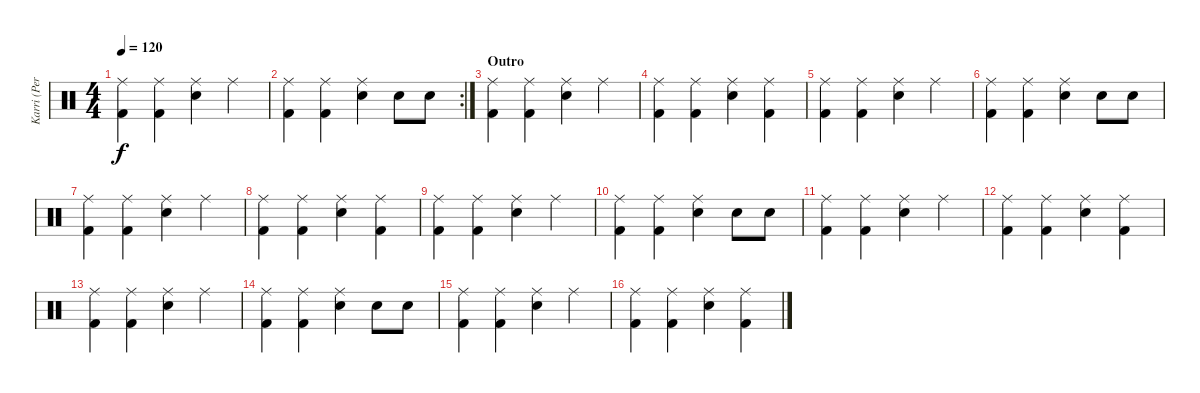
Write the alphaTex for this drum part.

\track ("Karri (Percussion)" "Karri (Per") {instrument percussion}
\staff {score}
\articulation defaults
\ts (4 4)
\tempo 120
\clef neutral
\ks c
("Ride (middle)" "Kick (hit) 2").4{dy f} ("Ride (middle)" "Kick (hit) 2").4 ("Ride (middle)" "Snare (hit) 2").4 "Ride (middle)".4 |
\rc 2
("Ride (middle)" "Kick (hit) 2").4 ("Ride (middle)" "Kick (hit) 2").4 ("Ride (middle)" "Snare (hit) 2").4 "Snare (hit) 2".8 "Snare (hit) 2".8 |
\section ("" "Outro")
("Ride (middle)" "Kick (hit) 2").4 ("Ride (middle)" "Kick (hit) 2").4 ("Ride (middle)" "Snare (hit) 2").4 "Ride (middle)".4 |
("Ride (middle)" "Kick (hit) 2").4 ("Ride (middle)" "Kick (hit) 2").4 ("Ride (middle)" "Snare (hit) 2").4 ("Ride (middle)" "Kick (hit) 2").4 |
("Ride (middle)" "Kick (hit) 2").4 ("Ride (middle)" "Kick (hit) 2").4 ("Ride (middle)" "Snare (hit) 2").4 "Ride (middle)".4 |
("Ride (middle)" "Kick (hit) 2").4 ("Ride (middle)" "Kick (hit) 2").4 ("Ride (middle)" "Snare (hit) 2").4 "Snare (hit) 2".8 "Snare (hit) 2".8 |
("Ride (middle)" "Kick (hit) 2").4 ("Ride (middle)" "Kick (hit) 2").4 ("Ride (middle)" "Snare (hit) 2").4 "Ride (middle)".4 |
("Ride (middle)" "Kick (hit) 2").4 ("Ride (middle)" "Kick (hit) 2").4 ("Ride (middle)" "Snare (hit) 2").4 ("Ride (middle)" "Kick (hit) 2").4 |
("Ride (middle)" "Kick (hit) 2").4 ("Ride (middle)" "Kick (hit) 2").4 ("Ride (middle)" "Snare (hit) 2").4 "Ride (middle)".4 |
("Ride (middle)" "Kick (hit) 2").4 ("Ride (middle)" "Kick (hit) 2").4 ("Ride (middle)" "Snare (hit) 2").4 "Snare (hit) 2".8 "Snare (hit) 2".8 |
("Ride (middle)" "Kick (hit) 2").4{volume 13} ("Ride (middle)" "Kick (hit) 2").4 ("Ride (middle)" "Snare (hit) 2").4 "Ride (middle)".4 |
("Ride (middle)" "Kick (hit) 2").4 ("Ride (middle)" "Kick (hit) 2").4 ("Ride (middle)" "Snare (hit) 2").4 ("Ride (middle)" "Kick (hit) 2").4 |
("Ride (middle)" "Kick (hit) 2").4{volume 11} ("Ride (middle)" "Kick (hit) 2").4 ("Ride (middle)" "Snare (hit) 2").4 "Ride (middle)".4 |
("Ride (middle)" "Kick (hit) 2").4 ("Ride (middle)" "Kick (hit) 2").4 ("Ride (middle)" "Snare (hit) 2").4 "Snare (hit) 2".8 "Snare (hit) 2".8 |
("Ride (middle)" "Kick (hit) 2").4{volume 9} ("Ride (middle)" "Kick (hit) 2").4 ("Ride (middle)" "Snare (hit) 2").4 "Ride (middle)".4 |
("Ride (middle)" "Kick (hit) 2").4 ("Ride (middle)" "Kick (hit) 2").4 ("Ride (middle)" "Snare (hit) 2").4 ("Ride (middle)" "Kick (hit) 2").4
